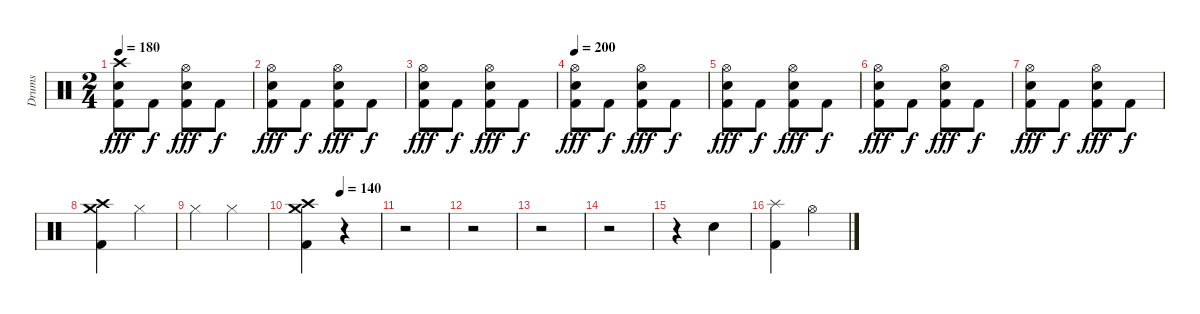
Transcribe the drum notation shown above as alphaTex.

\track ("Drums" "Drums") {instrument percussion}
\staff {score}
\articulation defaults
\ts (2 4)
\tempo 180
\clef neutral
\ks c
("Crash high (hit)" "Snare (hit) 2" "Kick (hit) 2").8{dy fff} "Kick (hit) 2".8{dy f} ("Hi-Hat (open)" "Snare (hit) 2" "Kick (hit) 2").8{dy fff} "Kick (hit) 2".8{dy f} |
("Hi-Hat (open)" "Snare (hit) 2" "Kick (hit) 2").8{dy fff} "Kick (hit) 2".8{dy f} ("Hi-Hat (open)" "Snare (hit) 2" "Kick (hit) 2").8{dy fff} "Kick (hit) 2".8{dy f} |
("Hi-Hat (open)" "Snare (hit) 2" "Kick (hit) 2").8{dy fff} "Kick (hit) 2".8{dy f} ("Hi-Hat (open)" "Snare (hit) 2" "Kick (hit) 2").8{dy fff} "Kick (hit) 2".8{dy f} |
\tempo 200
("Hi-Hat (open)" "Snare (hit) 2" "Kick (hit) 2").8{dy fff} "Kick (hit) 2".8{dy f} ("Hi-Hat (open)" "Snare (hit) 2" "Kick (hit) 2").8{dy fff} "Kick (hit) 2".8{dy f} |
("Hi-Hat (open)" "Snare (hit) 2" "Kick (hit) 2").8{dy fff} "Kick (hit) 2".8{dy f} ("Hi-Hat (open)" "Snare (hit) 2" "Kick (hit) 2").8{dy fff} "Kick (hit) 2".8{dy f} |
("Hi-Hat (open)" "Snare (hit) 2" "Kick (hit) 2").8{dy fff} "Kick (hit) 2".8{dy f} ("Hi-Hat (open)" "Snare (hit) 2" "Kick (hit) 2").8{dy fff} "Kick (hit) 2".8{dy f} |
("Hi-Hat (open)" "Snare (hit) 2" "Kick (hit) 2").8{dy fff} "Kick (hit) 2".8{dy f} ("Hi-Hat (open)" "Snare (hit) 2" "Kick (hit) 2").8{dy fff} "Kick (hit) 2".8{dy f} |
("Crash high (hit)" "Crash medium (hit)" "Kick (hit) 2").4 "Hi-Hat (closed)".4 |
"Hi-Hat (closed)".4 "Hi-Hat (closed)".4 |
\tempo (140 0.5)
("Crash high (hit)" "Crash medium (hit)" "Kick (hit) 2").4 r.4 |
r.2 |
r.2 |
r.2 |
r.2 |
r.4 "Snare (hit) 2".4 |
("Splash (hit)" "Kick (hit) 2").4 "Hi-Hat (open)".4
